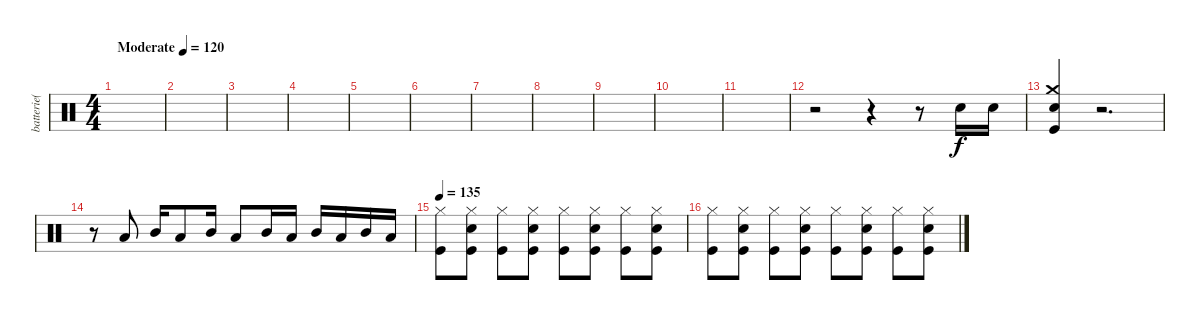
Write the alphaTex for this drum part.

\track ("batterie( Shane )" "batterie( ") {instrument percussion}
\staff {score}
\articulation defaults
\ts (4 4)
\tempo (120 "Moderate")
\clef neutral
\ks c
|
|
|
|
|
|
|
|
|
|
|
r.2 r.4 r.8 "Snare (hit) 2".16 "Snare (hit) 2".16 |
("Crash medium (hit)" "Snare (hit) 2" "Kick (hit)").4 r.2{d} |
r.8 "Low Tom (hit)".8 "Mid Tom (hit)".16 "Low Tom (hit)".8 "Mid Tom (hit)".16 "Low Tom (hit)".8 "Mid Tom (hit)".16 "Low Tom (hit)".16 "Mid Tom (hit)".16 "Low Tom (hit)".16 "Mid Tom (hit)".16 "Low Tom (hit)".16 |
\tempo 135
("Hi-Hat (closed)" "Kick (hit)").8 ("Hi-Hat (closed)" "Snare (hit) 2" "Kick (hit)").8 ("Hi-Hat (closed)" "Kick (hit)").8 ("Hi-Hat (closed)" "Snare (hit) 2" "Kick (hit)").8 ("Hi-Hat (closed)" "Kick (hit)").8 ("Hi-Hat (closed)" "Snare (hit) 2" "Kick (hit)").8 ("Hi-Hat (closed)" "Kick (hit)").8 ("Hi-Hat (closed)" "Snare (hit) 2" "Kick (hit)").8 |
("Hi-Hat (closed)" "Kick (hit)").8 ("Hi-Hat (closed)" "Snare (hit) 2" "Kick (hit)").8 ("Hi-Hat (closed)" "Kick (hit)").8 ("Hi-Hat (closed)" "Snare (hit) 2" "Kick (hit)").8 ("Hi-Hat (closed)" "Kick (hit)").8 ("Hi-Hat (closed)" "Snare (hit) 2" "Kick (hit)").8 ("Hi-Hat (closed)" "Kick (hit)").8 ("Hi-Hat (closed)" "Snare (hit) 2" "Kick (hit)").8
